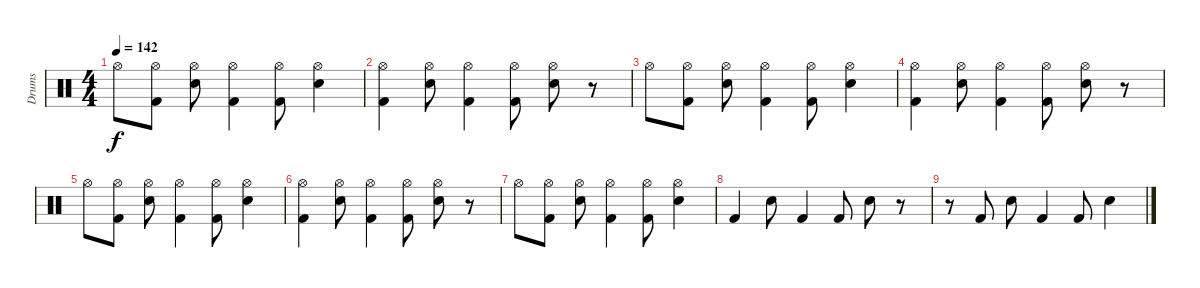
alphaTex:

\track ("Drums" "Drums") {instrument percussion}
\staff {score}
\articulation defaults
\ts (4 4)
\tempo 142
\clef neutral
\ks c "Hi-Hat (open)".8{dy f}
("Kick (hit) 2" "Hi-Hat (open)").8 ("Electric Snare (hit)" "Hi-Hat (open)").8 ("Kick (hit) 2" "Hi-Hat (open)").4 ("Kick (hit) 2" "Hi-Hat (open)").8 ("Electric Snare (hit)" "Hi-Hat (open)").4 |
("Kick (hit) 2" "Hi-Hat (open)").4 ("Electric Snare (hit)" "Hi-Hat (open)").8 ("Kick (hit) 2" "Hi-Hat (open)").4 ("Kick (hit) 2" "Hi-Hat (open)").8 ("Electric Snare (hit)" "Hi-Hat (open)").8 r.8 |
"Hi-Hat (open)".8 ("Kick (hit) 2" "Hi-Hat (open)").8 ("Electric Snare (hit)" "Hi-Hat (open)").8 ("Kick (hit) 2" "Hi-Hat (open)").4 ("Kick (hit) 2" "Hi-Hat (open)").8 ("Electric Snare (hit)" "Hi-Hat (open)").4 |
("Kick (hit) 2" "Hi-Hat (open)").4 ("Electric Snare (hit)" "Hi-Hat (open)").8 ("Kick (hit) 2" "Hi-Hat (open)").4 ("Kick (hit) 2" "Hi-Hat (open)").8 ("Electric Snare (hit)" "Hi-Hat (open)").8 r.8 |
"Hi-Hat (open)".8 ("Kick (hit) 2" "Hi-Hat (open)").8 ("Electric Snare (hit)" "Hi-Hat (open)").8 ("Kick (hit) 2" "Hi-Hat (open)").4 ("Kick (hit) 2" "Hi-Hat (open)").8 ("Electric Snare (hit)" "Hi-Hat (open)").4 |
("Kick (hit) 2" "Hi-Hat (open)").4 ("Electric Snare (hit)" "Hi-Hat (open)").8 ("Kick (hit) 2" "Hi-Hat (open)").4 ("Kick (hit) 2" "Hi-Hat (open)").8 ("Electric Snare (hit)" "Hi-Hat (open)").8 r.8 |
"Hi-Hat (open)".8 ("Kick (hit) 2" "Hi-Hat (open)").8 ("Electric Snare (hit)" "Hi-Hat (open)").8 ("Kick (hit) 2" "Hi-Hat (open)").4 ("Kick (hit) 2" "Hi-Hat (open)").8 ("Electric Snare (hit)" "Hi-Hat (open)").4 |
"Kick (hit) 2".4 "Electric Snare (hit)".8 "Kick (hit) 2".4 "Kick (hit) 2".8 "Electric Snare (hit)".8 r.8 |
r.8 "Kick (hit) 2".8 "Electric Snare (hit)".8 "Kick (hit) 2".4 "Kick (hit) 2".8 "Electric Snare (hit)".4
